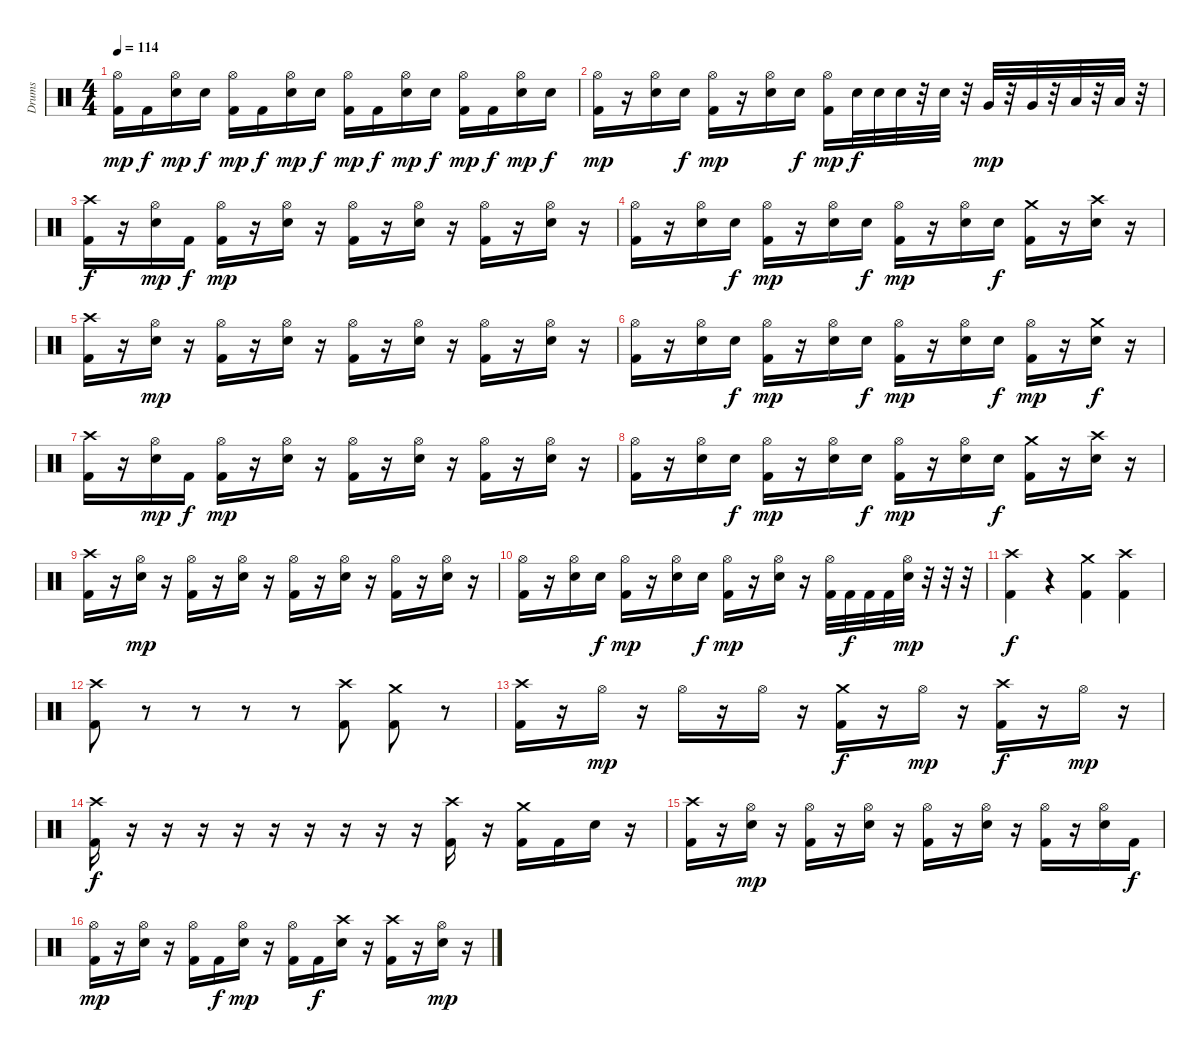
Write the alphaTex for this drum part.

\track ("Drums" "Drums") {instrument percussion}
\staff {score}
\articulation defaults
\ts (4 4)
\tempo 114
\clef neutral
\ks c
("Hi-Hat (open)" "Kick (hit) 2").16{dy mp} "Kick (hit) 2".16{dy f} ("Hi-Hat (open)" "Electric Snare (hit)").16{dy mp} "Electric Snare (hit)".16{dy f} ("Hi-Hat (open)" "Kick (hit) 2").16{dy mp} "Kick (hit) 2".16{dy f} ("Hi-Hat (open)" "Electric Snare (hit)").16{dy mp} "Electric Snare (hit)".16{dy f} ("Hi-Hat (open)" "Kick (hit) 2").16{dy mp} "Kick (hit) 2".16{dy f} ("Hi-Hat (open)" "Electric Snare (hit)").16{dy mp} "Electric Snare (hit)".16{dy f} ("Hi-Hat (open)" "Kick (hit) 2").16{dy mp} "Kick (hit) 2".16{dy f} ("Hi-Hat (open)" "Electric Snare (hit)").16{dy mp} "Electric Snare (hit)".16{dy f} |
("Hi-Hat (open)" "Kick (hit) 2").16{dy mp} r.16 ("Hi-Hat (open)" "Electric Snare (hit)").16 "Electric Snare (hit)".16{dy f} ("Hi-Hat (open)" "Kick (hit) 2").16{dy mp} r.16 ("Hi-Hat (open)" "Electric Snare (hit)").16 "Electric Snare (hit)".16{dy f} ("Hi-Hat (open)" "Kick (hit) 2").16{dy mp} "Electric Snare (hit)".32{dy f} "Electric Snare (hit)".32 "Electric Snare (hit)".32 r.32 "Electric Snare (hit)".32 r.32 "Very Low Tom (hit)".32{dy mp} r.32 "Very Low Tom (hit)".32 r.32 "Low Floor Tom (hit)".32 r.32 "Low Floor Tom (hit)".32 r.32 |
("Crash high (hit)" "Kick (hit) 2").16{dy f} r.16 ("Hi-Hat (open)" "Electric Snare (hit)").16{dy mp} "Kick (hit) 2".16{dy f} ("Hi-Hat (open)" "Kick (hit) 2").16{dy mp} r.16 ("Hi-Hat (open)" "Electric Snare (hit)").16 r.16 ("Hi-Hat (open)" "Kick (hit) 2").16 r.16 ("Hi-Hat (open)" "Electric Snare (hit)").16 r.16 ("Hi-Hat (open)" "Kick (hit) 2").16 r.16 ("Hi-Hat (open)" "Electric Snare (hit)").16 r.16 |
("Hi-Hat (open)" "Kick (hit) 2").16 r.16 ("Hi-Hat (open)" "Electric Snare (hit)").16 "Electric Snare (hit)".16{dy f} ("Hi-Hat (open)" "Kick (hit) 2").16{dy mp} r.16 ("Hi-Hat (open)" "Electric Snare (hit)").16 "Electric Snare (hit)".16{dy f} ("Hi-Hat (open)" "Kick (hit) 2").16{dy mp} r.16 ("Hi-Hat (open)" "Electric Snare (hit)").16 "Electric Snare (hit)".16{dy f} ("Crash medium (hit)" "Kick (hit) 2").16 r.16 ("Crash high (hit)" "Electric Snare (hit)").16 r.16 |
("Crash high (hit)" "Kick (hit) 2").16 r.16 ("Hi-Hat (open)" "Electric Snare (hit)").16{dy mp} r.16 ("Hi-Hat (open)" "Kick (hit) 2").16 r.16 ("Hi-Hat (open)" "Electric Snare (hit)").16 r.16 ("Hi-Hat (open)" "Kick (hit) 2").16 r.16 ("Hi-Hat (open)" "Electric Snare (hit)").16 r.16 ("Hi-Hat (open)" "Kick (hit) 2").16 r.16 ("Hi-Hat (open)" "Electric Snare (hit)").16 r.16 |
("Hi-Hat (open)" "Kick (hit) 2").16 r.16 ("Hi-Hat (open)" "Electric Snare (hit)").16 "Electric Snare (hit)".16{dy f} ("Hi-Hat (open)" "Kick (hit) 2").16{dy mp} r.16 ("Hi-Hat (open)" "Electric Snare (hit)").16 "Electric Snare (hit)".16{dy f} ("Hi-Hat (open)" "Kick (hit) 2").16{dy mp} r.16 ("Hi-Hat (open)" "Electric Snare (hit)").16 "Electric Snare (hit)".16{dy f} ("Hi-Hat (open)" "Kick (hit) 2").16{dy mp} r.16 ("Crash medium (hit)" "Electric Snare (hit)").16{dy f} r.16 |
("Crash high (hit)" "Kick (hit) 2").16 r.16 ("Hi-Hat (open)" "Electric Snare (hit)").16{dy mp} "Kick (hit) 2".16{dy f} ("Hi-Hat (open)" "Kick (hit) 2").16{dy mp} r.16 ("Hi-Hat (open)" "Electric Snare (hit)").16 r.16 ("Hi-Hat (open)" "Kick (hit) 2").16 r.16 ("Hi-Hat (open)" "Electric Snare (hit)").16 r.16 ("Hi-Hat (open)" "Kick (hit) 2").16 r.16 ("Hi-Hat (open)" "Electric Snare (hit)").16 r.16 |
("Hi-Hat (open)" "Kick (hit) 2").16 r.16 ("Hi-Hat (open)" "Electric Snare (hit)").16 "Electric Snare (hit)".16{dy f} ("Hi-Hat (open)" "Kick (hit) 2").16{dy mp} r.16 ("Hi-Hat (open)" "Electric Snare (hit)").16 "Electric Snare (hit)".16{dy f} ("Hi-Hat (open)" "Kick (hit) 2").16{dy mp} r.16 ("Hi-Hat (open)" "Electric Snare (hit)").16 "Electric Snare (hit)".16{dy f} ("Crash medium (hit)" "Kick (hit) 2").16 r.16 ("Crash high (hit)" "Electric Snare (hit)").16 r.16 |
("Crash high (hit)" "Kick (hit) 2").16 r.16 ("Hi-Hat (open)" "Electric Snare (hit)").16{dy mp} r.16 ("Hi-Hat (open)" "Kick (hit) 2").16 r.16 ("Hi-Hat (open)" "Electric Snare (hit)").16 r.16 ("Hi-Hat (open)" "Kick (hit) 2").16 r.16 ("Hi-Hat (open)" "Electric Snare (hit)").16 r.16 ("Hi-Hat (open)" "Kick (hit) 2").16 r.16 ("Hi-Hat (open)" "Electric Snare (hit)").16 r.16 |
("Hi-Hat (open)" "Kick (hit) 2").16 r.16 ("Hi-Hat (open)" "Electric Snare (hit)").16 "Electric Snare (hit)".16{dy f} ("Hi-Hat (open)" "Kick (hit) 2").16{dy mp} r.16 ("Hi-Hat (open)" "Electric Snare (hit)").16 "Electric Snare (hit)".16{dy f} ("Hi-Hat (open)" "Kick (hit) 2").16{dy mp} r.16 ("Hi-Hat (open)" "Electric Snare (hit)").16 r.16 ("Hi-Hat (open)" "Kick (hit) 2").32 "Kick (hit) 2".32{dy f} "Kick (hit) 2".32 "Kick (hit) 2".32 ("Hi-Hat (open)" "Electric Snare (hit)").32{dy mp} r.32 r.32 r.32 |
("Crash high (hit)" "Kick (hit) 2").4{dy f} r.4 ("Crash medium (hit)" "Kick (hit) 2").4 ("Crash high (hit)" "Kick (hit) 2").4 |
("Crash high (hit)" "Kick (hit) 2").8 r.8 r.8 r.8 r.8 ("Crash high (hit)" "Kick (hit) 2").8 ("Crash medium (hit)" "Kick (hit) 2").8 r.8 |
("Crash high (hit)" "Kick (hit) 2").16 r.16 "Hi-Hat (open)".16{dy mp} r.16 "Hi-Hat (open)".16 r.16 "Hi-Hat (open)".16 r.16 ("Crash medium (hit)" "Kick (hit) 2").16{dy f} r.16 "Hi-Hat (open)".16{dy mp} r.16 ("Crash high (hit)" "Kick (hit) 2").16{dy f} r.16 "Hi-Hat (open)".16{dy mp} r.16 |
("Crash high (hit)" "Kick (hit) 2").16{dy f} r.16 r.16 r.16 r.16 r.16 r.16 r.16 r.16 r.16 ("Crash high (hit)" "Kick (hit) 2").16 r.16 ("Crash medium (hit)" "Kick (hit) 2").16 "Kick (hit) 2".16 "Electric Snare (hit)".16 r.16 |
("Crash high (hit)" "Kick (hit) 2").16 r.16 ("Hi-Hat (open)" "Electric Snare (hit)").16{dy mp} r.16 ("Hi-Hat (open)" "Kick (hit) 2").16 r.16 ("Hi-Hat (open)" "Electric Snare (hit)").16 r.16 ("Hi-Hat (open)" "Kick (hit) 2").16 r.16 ("Hi-Hat (open)" "Electric Snare (hit)").16 r.16 ("Hi-Hat (open)" "Kick (hit) 2").16 r.16 ("Hi-Hat (open)" "Electric Snare (hit)").16 "Kick (hit) 2".16{dy f} |
("Hi-Hat (open)" "Kick (hit) 2").16{dy mp} r.16 ("Hi-Hat (open)" "Electric Snare (hit)").16 r.16 ("Hi-Hat (open)" "Kick (hit) 2").16 "Kick (hit) 2".16{dy f} ("Hi-Hat (open)" "Electric Snare (hit)").16{dy mp} r.16 ("Hi-Hat (open)" "Kick (hit) 2").16 "Kick (hit) 2".16{dy f} ("Crash high (hit)" "Electric Snare (hit)").16 r.16 ("Crash high (hit)" "Kick (hit) 2").16 r.16 ("Hi-Hat (open)" "Electric Snare (hit)").16{dy mp} r.16
